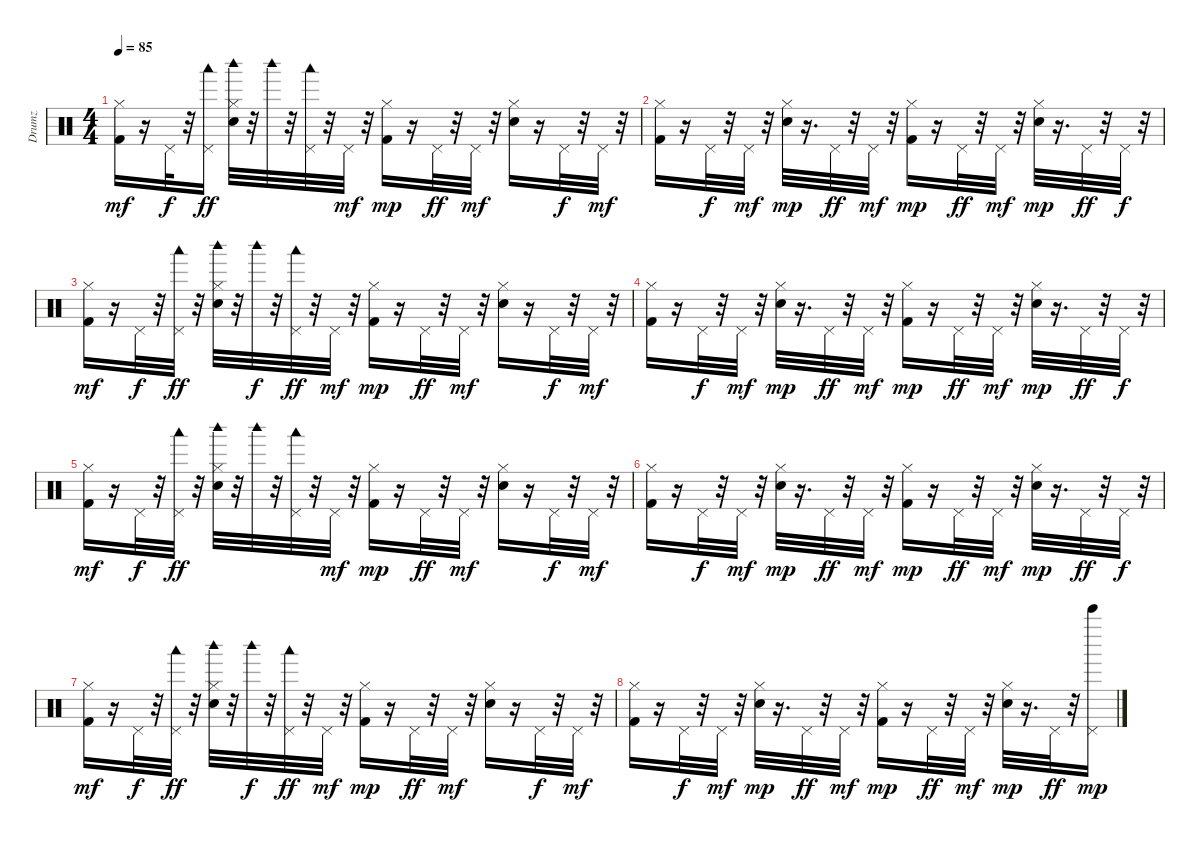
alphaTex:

\track ("Drumz" "Drumz") {instrument percussion}
\staff {score}
\articulation defaults
\ts (4 4)
\tempo 85
\clef neutral
\ks c
("Kick (hit) 2" "Hi-Hat (closed)").16{dy mf volume 12} r.16 "Pedal Hi-Hat (hit)".32{dy f} r.32 ("Pedal Hi-Hat (hit)" "Woodblock low (hit)").16{dy ff} ("Hand Clap (hit)" "Hi-Hat (closed)" "Woodblock high (hit)").32 r.32 "Woodblock high (hit)".32 r.32 ("Pedal Hi-Hat (hit)" "Woodblock low (hit)").32 r.32 "Pedal Hi-Hat (hit)".32{dy mf} r.32 ("Kick (hit) 2" "Hi-Hat (closed)").16{dy mp} r.16 "Pedal Hi-Hat (hit)".32{dy ff} r.32 "Pedal Hi-Hat (hit)".32{dy mf} r.32 ("Hand Clap (hit)" "Hi-Hat (closed)").16 r.16 "Pedal Hi-Hat (hit)".32{dy f} r.32 "Pedal Hi-Hat (hit)".32{dy mf} r.32 |
("Kick (hit) 2" "Hi-Hat (closed)").16 r.16 "Pedal Hi-Hat (hit)".32{dy f} r.32 "Pedal Hi-Hat (hit)".32{dy mf} r.32 ("Hand Clap (hit)" "Hi-Hat (closed)").32{dy mp} r.16{d} "Pedal Hi-Hat (hit)".32{dy ff} r.32 "Pedal Hi-Hat (hit)".32{dy mf} r.32 ("Kick (hit) 2" "Hi-Hat (closed)").16{dy mp} r.16 "Pedal Hi-Hat (hit)".32{dy ff} r.32 "Pedal Hi-Hat (hit)".32{dy mf} r.32 ("Hand Clap (hit)" "Hi-Hat (closed)").32{dy mp} r.16{d} "Pedal Hi-Hat (hit)".32{dy ff} r.32 "Pedal Hi-Hat (hit)".32{dy f} r.32 |
("Kick (hit) 2" "Hi-Hat (closed)").16{dy mf} r.16 "Pedal Hi-Hat (hit)".32{dy f} r.32 ("Pedal Hi-Hat (hit)" "Woodblock low (hit)").32{dy ff} r.32 ("Hand Clap (hit)" "Hi-Hat (closed)" "Woodblock high (hit)").32 r.32 "Woodblock high (hit)".32{dy f} r.32 ("Pedal Hi-Hat (hit)" "Woodblock low (hit)").32{dy ff} r.32 "Pedal Hi-Hat (hit)".32{dy mf} r.32 ("Kick (hit) 2" "Hi-Hat (closed)").16{dy mp} r.16 "Pedal Hi-Hat (hit)".32{dy ff} r.32 "Pedal Hi-Hat (hit)".32{dy mf} r.32 ("Hand Clap (hit)" "Hi-Hat (closed)").16 r.16 "Pedal Hi-Hat (hit)".32{dy f} r.32 "Pedal Hi-Hat (hit)".32{dy mf} r.32 |
("Kick (hit) 2" "Hi-Hat (closed)").16 r.16 "Pedal Hi-Hat (hit)".32{dy f} r.32 "Pedal Hi-Hat (hit)".32{dy mf} r.32 ("Hand Clap (hit)" "Hi-Hat (closed)").32{dy mp} r.16{d} "Pedal Hi-Hat (hit)".32{dy ff} r.32 "Pedal Hi-Hat (hit)".32{dy mf} r.32 ("Kick (hit) 2" "Hi-Hat (closed)").16{dy mp} r.16 "Pedal Hi-Hat (hit)".32{dy ff} r.32 "Pedal Hi-Hat (hit)".32{dy mf} r.32 ("Hand Clap (hit)" "Hi-Hat (closed)").32{dy mp} r.16{d} "Pedal Hi-Hat (hit)".32{dy ff} r.32 "Pedal Hi-Hat (hit)".32{dy f} r.32 |
("Kick (hit) 2" "Hi-Hat (closed)").16{dy mf} r.16 "Pedal Hi-Hat (hit)".32{dy f} r.32 ("Pedal Hi-Hat (hit)" "Woodblock low (hit)").32{dy ff} r.32 ("Hand Clap (hit)" "Hi-Hat (closed)" "Woodblock high (hit)").32 r.32 "Woodblock high (hit)".32 r.32 ("Pedal Hi-Hat (hit)" "Woodblock low (hit)").32 r.32 "Pedal Hi-Hat (hit)".32{dy mf} r.32 ("Kick (hit) 2" "Hi-Hat (closed)").16{dy mp} r.16 "Pedal Hi-Hat (hit)".32{dy ff} r.32 "Pedal Hi-Hat (hit)".32{dy mf} r.32 ("Hand Clap (hit)" "Hi-Hat (closed)").16 r.16 "Pedal Hi-Hat (hit)".32{dy f} r.32 "Pedal Hi-Hat (hit)".32{dy mf} r.32 |
("Kick (hit) 2" "Hi-Hat (closed)").16 r.16 "Pedal Hi-Hat (hit)".32{dy f} r.32 "Pedal Hi-Hat (hit)".32{dy mf} r.32 ("Hand Clap (hit)" "Hi-Hat (closed)").32{dy mp} r.16{d} "Pedal Hi-Hat (hit)".32{dy ff} r.32 "Pedal Hi-Hat (hit)".32{dy mf} r.32 ("Kick (hit) 2" "Hi-Hat (closed)").16{dy mp} r.16 "Pedal Hi-Hat (hit)".32{dy ff} r.32 "Pedal Hi-Hat (hit)".32{dy mf} r.32 ("Hand Clap (hit)" "Hi-Hat (closed)").32{dy mp} r.16{d} "Pedal Hi-Hat (hit)".32{dy ff} r.32 "Pedal Hi-Hat (hit)".32{dy f} r.32 |
("Kick (hit) 2" "Hi-Hat (closed)").16{dy mf} r.16 "Pedal Hi-Hat (hit)".32{dy f} r.32 ("Pedal Hi-Hat (hit)" "Woodblock low (hit)").32{dy ff} r.32 ("Hand Clap (hit)" "Hi-Hat (closed)" "Woodblock high (hit)").32 r.32 "Woodblock high (hit)".32{dy f} r.32 ("Pedal Hi-Hat (hit)" "Woodblock low (hit)").32{dy ff} r.32 "Pedal Hi-Hat (hit)".32{dy mf} r.32 ("Kick (hit) 2" "Hi-Hat (closed)").16{dy mp} r.16 "Pedal Hi-Hat (hit)".32{dy ff} r.32 "Pedal Hi-Hat (hit)".32{dy mf} r.32 ("Hand Clap (hit)" "Hi-Hat (closed)").16 r.16 "Pedal Hi-Hat (hit)".32{dy f} r.32 "Pedal Hi-Hat (hit)".32{dy mf} r.32 |
("Kick (hit) 2" "Hi-Hat (closed)").16 r.16 "Pedal Hi-Hat (hit)".32{dy f} r.32 "Pedal Hi-Hat (hit)".32{dy mf} r.32 ("Hand Clap (hit)" "Hi-Hat (closed)").32{dy mp} r.16{d} "Pedal Hi-Hat (hit)".32{dy ff} r.32 "Pedal Hi-Hat (hit)".32{dy mf} r.32 ("Kick (hit) 2" "Hi-Hat (closed)").16{dy mp} r.16 "Pedal Hi-Hat (hit)".32{dy ff} r.32 "Pedal Hi-Hat (hit)".32{dy mf} r.32 ("Hand Clap (hit)" "Hi-Hat (closed)").32{dy mp} r.16{d} "Pedal Hi-Hat (hit)".32{dy ff} r.32 ("Pedal Hi-Hat (hit)" "Bell Tree (hit)").16{dy mp}
